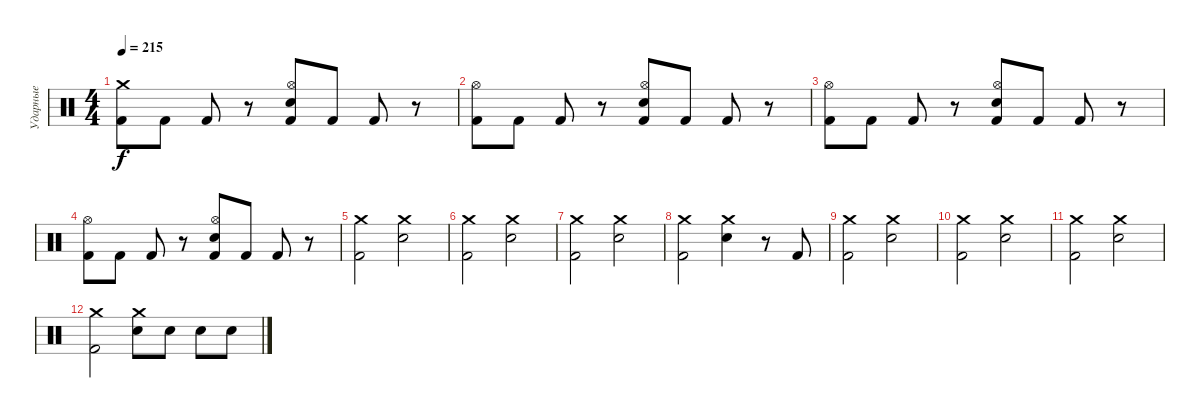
\track ("Ударные" "Ударные") {instrument percussion}
\staff {score}
\articulation defaults
\ts (4 4)
\tempo 215
\clef neutral
\ks c
("Crash medium (hit)" "Kick (hit) 2").8{dy f} "Kick (hit) 2".8 "Kick (hit) 2".8 r.8 ("Hi-Hat (open)" "Electric Snare (hit)" "Kick (hit) 2").8 "Kick (hit) 2".8 "Kick (hit) 2".8 r.8 |
("Hi-Hat (open)" "Kick (hit) 2").8 "Kick (hit) 2".8 "Kick (hit) 2".8 r.8 ("Hi-Hat (open)" "Electric Snare (hit)" "Kick (hit) 2").8 "Kick (hit) 2".8 "Kick (hit) 2".8 r.8 |
("Hi-Hat (open)" "Kick (hit) 2").8 "Kick (hit) 2".8 "Kick (hit) 2".8 r.8 ("Hi-Hat (open)" "Electric Snare (hit)" "Kick (hit) 2").8 "Kick (hit) 2".8 "Kick (hit) 2".8 r.8 |
("Hi-Hat (open)" "Kick (hit) 2").8 "Kick (hit) 2".8 "Kick (hit) 2".8 r.8 ("Hi-Hat (open)" "Electric Snare (hit)" "Kick (hit) 2").8 "Kick (hit) 2".8 "Kick (hit) 2".8 r.8 |
("Crash medium (hit)" "Kick (hit) 2").2 ("Crash medium (hit)" "Electric Snare (hit)").2 |
("Crash medium (hit)" "Kick (hit) 2").2 ("Crash medium (hit)" "Electric Snare (hit)").2 |
("Crash medium (hit)" "Kick (hit) 2").2 ("Crash medium (hit)" "Electric Snare (hit)").2 |
("Crash medium (hit)" "Kick (hit) 2").2 ("Crash medium (hit)" "Electric Snare (hit)").4 r.8 "Kick (hit) 2".8 |
("Crash medium (hit)" "Kick (hit) 2").2 ("Crash medium (hit)" "Electric Snare (hit)").2 |
("Crash medium (hit)" "Kick (hit) 2").2 ("Crash medium (hit)" "Electric Snare (hit)").2 |
("Crash medium (hit)" "Kick (hit) 2").2 ("Crash medium (hit)" "Electric Snare (hit)").2 |
("Crash medium (hit)" "Kick (hit) 2").2 ("Crash medium (hit)" "Electric Snare (hit)").8 "Electric Snare (hit)".8 "Electric Snare (hit)".8 "Electric Snare (hit)".8
